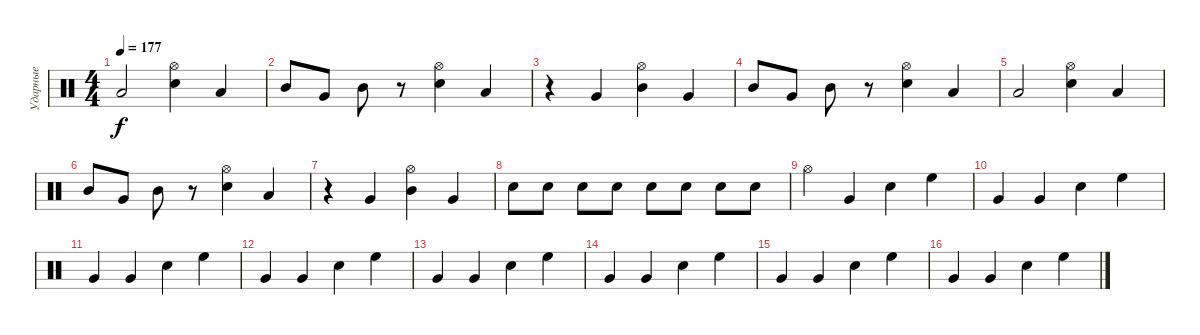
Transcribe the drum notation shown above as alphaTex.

\track ("Ударные" "Ударные") {instrument percussion}
\staff {score}
\articulation defaults
\ts (4 4)
\tempo 177
\clef neutral
\ks c "Low Tom (hit)".2{dy f}
("Hi-Hat (open)" "Electric Snare (hit)").4 "Low Tom (hit)".4 |
"Mid Tom (hit)".8 "Very Low Tom (hit)".8 "Mid Tom (hit)".8 r.8 ("Hi-Hat (open)" "Electric Snare (hit)").4 "Low Tom (hit)".4 |
r.4 "Very Low Tom (hit)".4 ("Hi-Hat (open)" "Mid Tom (hit)").4 "Very Low Tom (hit)".4 |
"Mid Tom (hit)".8 "Very Low Tom (hit)".8 "Mid Tom (hit)".8 r.8 ("Hi-Hat (open)" "Electric Snare (hit)").4 "Low Tom (hit)".4 |
"Low Tom (hit)".2 ("Hi-Hat (open)" "Electric Snare (hit)").4 "Low Tom (hit)".4 |
"Mid Tom (hit)".8 "Very Low Tom (hit)".8 "Mid Tom (hit)".8 r.8 ("Hi-Hat (open)" "Electric Snare (hit)").4 "Low Tom (hit)".4 |
r.4 "Very Low Tom (hit)".4 ("Hi-Hat (open)" "Mid Tom (hit)").4 "Very Low Tom (hit)".4 |
"Electric Snare (hit)".8 "Electric Snare (hit)".8 "Electric Snare (hit)".8 "Electric Snare (hit)".8 "Electric Snare (hit)".8 "Electric Snare (hit)".8 "Electric Snare (hit)".8 "Electric Snare (hit)".8 |
"Hi-Hat (open)".4 "Very Low Tom (hit)".4 "Electric Snare (hit)".4 "High Floor Tom (hit)".4 |
"Very Low Tom (hit)".4 "Very Low Tom (hit)".4 "Electric Snare (hit)".4 "High Floor Tom (hit)".4 |
"Very Low Tom (hit)".4 "Very Low Tom (hit)".4 "Electric Snare (hit)".4 "High Floor Tom (hit)".4 |
"Very Low Tom (hit)".4 "Very Low Tom (hit)".4 "Electric Snare (hit)".4 "High Floor Tom (hit)".4 |
"Very Low Tom (hit)".4 "Very Low Tom (hit)".4 "Electric Snare (hit)".4 "High Floor Tom (hit)".4 |
"Very Low Tom (hit)".4 "Very Low Tom (hit)".4 "Electric Snare (hit)".4 "High Floor Tom (hit)".4 |
"Very Low Tom (hit)".4 "Very Low Tom (hit)".4 "Electric Snare (hit)".4 "High Floor Tom (hit)".4 |
"Very Low Tom (hit)".4 "Very Low Tom (hit)".4 "Electric Snare (hit)".4 "High Floor Tom (hit)".4
